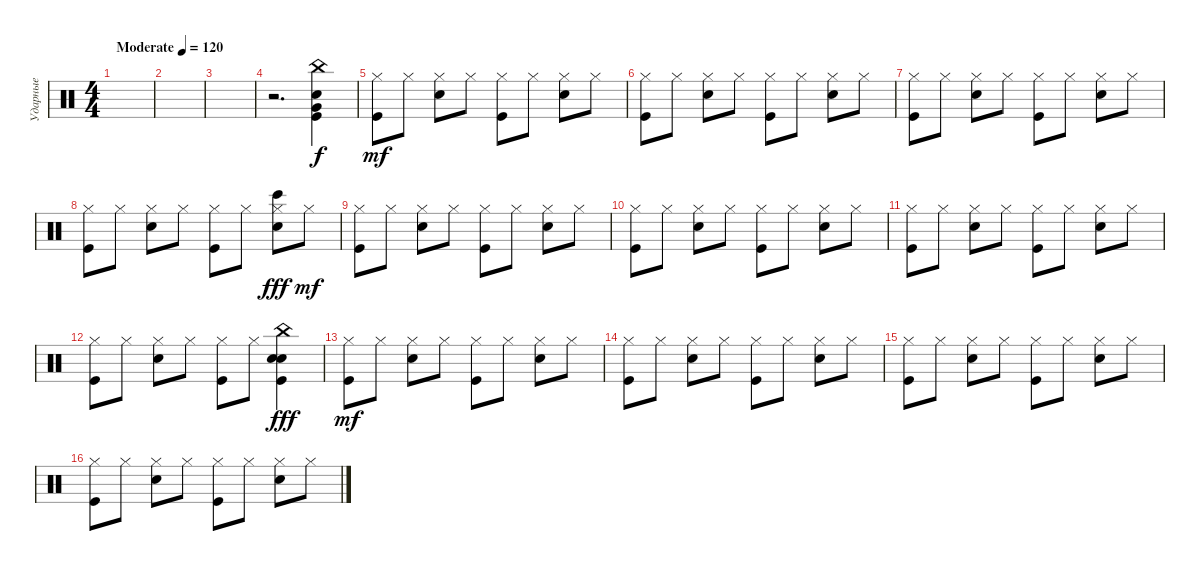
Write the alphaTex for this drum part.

\track ("Ударные" "Ударные") {instrument percussion}
\staff {score}
\articulation defaults
\ts (4 4)
\tempo (120 "Moderate")
\clef neutral
\ks c
|
|
|
r.2{d} ("China (hit)" "Kick (hit)" "Hand Clap (hit)" "Very Low Tom (hit)").4 |
("Kick (hit)" "Hi-Hat (closed)").8{dy mf} "Hi-Hat (closed)".8 ("Snare (hit) 2" "Hi-Hat (closed)").8 "Hi-Hat (closed)".8 ("Kick (hit)" "Hi-Hat (closed)").8 "Hi-Hat (closed)".8 ("Snare (hit) 2" "Hi-Hat (closed)").8 "Hi-Hat (closed)".8 |
("Kick (hit)" "Hi-Hat (closed)").8 "Hi-Hat (closed)".8 ("Snare (hit) 2" "Hi-Hat (closed)").8 "Hi-Hat (closed)".8 ("Kick (hit)" "Hi-Hat (closed)").8 "Hi-Hat (closed)".8 ("Snare (hit) 2" "Hi-Hat (closed)").8 "Hi-Hat (closed)".8 |
("Kick (hit)" "Hi-Hat (closed)").8 "Hi-Hat (closed)".8 ("Snare (hit) 2" "Hi-Hat (closed)").8 "Hi-Hat (closed)".8 ("Kick (hit)" "Hi-Hat (closed)").8 "Hi-Hat (closed)".8 ("Snare (hit) 2" "Hi-Hat (closed)").8 "Hi-Hat (closed)".8 |
("Kick (hit)" "Hi-Hat (closed)").8 "Hi-Hat (closed)".8 ("Snare (hit) 2" "Hi-Hat (closed)").8 "Hi-Hat (closed)".8 ("Kick (hit)" "Hi-Hat (closed)").8 "Hi-Hat (closed)".8 ("Snare (hit) 2" "Hi-Hat (closed)" "Bongo High (hit)").8{dy fff} "Hi-Hat (closed)".8{dy mf} |
("Kick (hit)" "Hi-Hat (closed)").8 "Hi-Hat (closed)".8 ("Snare (hit) 2" "Hi-Hat (closed)").8 "Hi-Hat (closed)".8 ("Kick (hit)" "Hi-Hat (closed)").8 "Hi-Hat (closed)".8 ("Snare (hit) 2" "Hi-Hat (closed)").8 "Hi-Hat (closed)".8 |
("Kick (hit)" "Hi-Hat (closed)").8 "Hi-Hat (closed)".8 ("Snare (hit) 2" "Hi-Hat (closed)").8 "Hi-Hat (closed)".8 ("Kick (hit)" "Hi-Hat (closed)").8 "Hi-Hat (closed)".8 ("Snare (hit) 2" "Hi-Hat (closed)").8 "Hi-Hat (closed)".8 |
("Kick (hit)" "Hi-Hat (closed)").8 "Hi-Hat (closed)".8 ("Snare (hit) 2" "Hi-Hat (closed)").8 "Hi-Hat (closed)".8 ("Kick (hit)" "Hi-Hat (closed)").8 "Hi-Hat (closed)".8 ("Snare (hit) 2" "Hi-Hat (closed)").8 "Hi-Hat (closed)".8 |
("Kick (hit)" "Hi-Hat (closed)").8 "Hi-Hat (closed)".8 ("Snare (hit) 2" "Hi-Hat (closed)").8 "Hi-Hat (closed)".8 ("Kick (hit)" "Hi-Hat (closed)").8 "Hi-Hat (closed)".8 ("China (hit)" "Kick (hit)" "Hand Clap (hit)" "Snare (hit) 2").4{dy fff} |
("Kick (hit)" "Hi-Hat (closed)").8{dy mf} "Hi-Hat (closed)".8 ("Snare (hit) 2" "Hi-Hat (closed)").8 "Hi-Hat (closed)".8 ("Kick (hit)" "Hi-Hat (closed)").8 "Hi-Hat (closed)".8 ("Snare (hit) 2" "Hi-Hat (closed)").8 "Hi-Hat (closed)".8 |
("Kick (hit)" "Hi-Hat (closed)").8 "Hi-Hat (closed)".8 ("Snare (hit) 2" "Hi-Hat (closed)").8 "Hi-Hat (closed)".8 ("Kick (hit)" "Hi-Hat (closed)").8 "Hi-Hat (closed)".8 ("Snare (hit) 2" "Hi-Hat (closed)").8 "Hi-Hat (closed)".8 |
("Kick (hit)" "Hi-Hat (closed)").8 "Hi-Hat (closed)".8 ("Snare (hit) 2" "Hi-Hat (closed)").8 "Hi-Hat (closed)".8 ("Kick (hit)" "Hi-Hat (closed)").8 "Hi-Hat (closed)".8 ("Snare (hit) 2" "Hi-Hat (closed)").8 "Hi-Hat (closed)".8 |
("Kick (hit)" "Hi-Hat (closed)").8 "Hi-Hat (closed)".8 ("Snare (hit) 2" "Hi-Hat (closed)").8 "Hi-Hat (closed)".8 ("Kick (hit)" "Hi-Hat (closed)").8 "Hi-Hat (closed)".8 ("Snare (hit) 2" "Hi-Hat (closed)").8 "Hi-Hat (closed)".8
